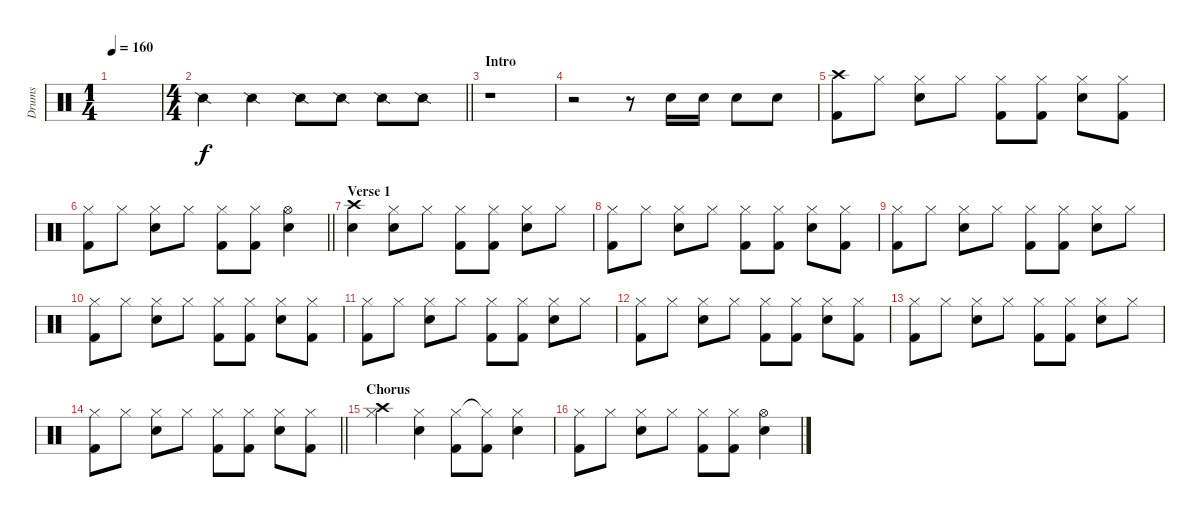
\track ("Drums" "Drums") {instrument percussion}
\staff {score}
\articulation defaults
\ts (1 4)
\tempo 160
\clef neutral
\ks c
|
\ts (4 4)
\barLineRight lightlight "Snare (side stick) 2".4 "Snare (side stick) 2".4 "Snare (side stick) 2".8 "Snare (side stick) 2".8 "Snare (side stick) 2".8 "Snare (side stick) 2".8
|
\section ("" "Intro")
r.1 |
r.2 r.8 "Electric Snare (hit)".16 "Electric Snare (hit)".16 "Electric Snare (hit)".8 "Electric Snare (hit)".8 |
("Crash high (hit)" "Kick (hit) 2").8 "Hi-Hat (closed)".8 ("Hi-Hat (closed)" "Electric Snare (hit)").8 "Hi-Hat (closed)".8 ("Hi-Hat (closed)" "Kick (hit) 2").8 ("Hi-Hat (closed)" "Kick (hit) 2").8 ("Hi-Hat (closed)" "Electric Snare (hit)").8 ("Hi-Hat (closed)" "Kick (hit) 2").8 |
\barLineRight lightlight
("Hi-Hat (closed)" "Kick (hit) 2").8 "Hi-Hat (closed)".8 ("Hi-Hat (closed)" "Electric Snare (hit)").8 "Hi-Hat (closed)".8 ("Hi-Hat (closed)" "Kick (hit) 2").8 ("Hi-Hat (closed)" "Kick (hit) 2").8 ("Hi-Hat (open)" "Electric Snare (hit)").4 |
\section ("" "Verse 1")
("Crash high (hit)" "Electric Snare (hit)").4 ("Hi-Hat (closed)" "Electric Snare (hit)").8 "Hi-Hat (closed)".8 ("Hi-Hat (closed)" "Kick (hit) 2").8 ("Hi-Hat (closed)" "Kick (hit) 2").8 ("Hi-Hat (closed)" "Electric Snare (hit)").8 "Hi-Hat (closed)".8 |
("Hi-Hat (closed)" "Kick (hit) 2").8 "Hi-Hat (closed)".8 ("Hi-Hat (closed)" "Electric Snare (hit)").8 "Hi-Hat (closed)".8 ("Hi-Hat (closed)" "Kick (hit) 2").8 ("Hi-Hat (closed)" "Kick (hit) 2").8 ("Hi-Hat (closed)" "Electric Snare (hit)").8 ("Hi-Hat (closed)" "Kick (hit) 2").8 |
("Hi-Hat (closed)" "Kick (hit) 2").8 "Hi-Hat (closed)".8 ("Hi-Hat (closed)" "Electric Snare (hit)").8 "Hi-Hat (closed)".8 ("Hi-Hat (closed)" "Kick (hit) 2").8 ("Hi-Hat (closed)" "Kick (hit) 2").8 ("Hi-Hat (closed)" "Electric Snare (hit)").8 "Hi-Hat (closed)".8 |
("Hi-Hat (closed)" "Kick (hit) 2").8 "Hi-Hat (closed)".8 ("Hi-Hat (closed)" "Electric Snare (hit)").8 "Hi-Hat (closed)".8 ("Hi-Hat (closed)" "Kick (hit) 2").8 ("Hi-Hat (closed)" "Kick (hit) 2").8 ("Hi-Hat (closed)" "Electric Snare (hit)").8 ("Hi-Hat (closed)" "Kick (hit) 2").8 |
("Hi-Hat (closed)" "Kick (hit) 2").8 "Hi-Hat (closed)".8 ("Hi-Hat (closed)" "Electric Snare (hit)").8 "Hi-Hat (closed)".8 ("Hi-Hat (closed)" "Kick (hit) 2").8 ("Hi-Hat (closed)" "Kick (hit) 2").8 ("Hi-Hat (closed)" "Electric Snare (hit)").8 "Hi-Hat (closed)".8 |
("Hi-Hat (closed)" "Kick (hit) 2").8 "Hi-Hat (closed)".8 ("Hi-Hat (closed)" "Electric Snare (hit)").8 "Hi-Hat (closed)".8 ("Hi-Hat (closed)" "Kick (hit) 2").8 ("Hi-Hat (closed)" "Kick (hit) 2").8 ("Hi-Hat (closed)" "Electric Snare (hit)").8 ("Hi-Hat (closed)" "Kick (hit) 2").8 |
("Hi-Hat (closed)" "Kick (hit) 2").8 "Hi-Hat (closed)".8 ("Hi-Hat (closed)" "Electric Snare (hit)").8 "Hi-Hat (closed)".8 ("Hi-Hat (closed)" "Kick (hit) 2").8 ("Hi-Hat (closed)" "Kick (hit) 2").8 ("Hi-Hat (closed)" "Electric Snare (hit)").8 "Hi-Hat (closed)".8 |
\barLineRight lightlight
("Hi-Hat (closed)" "Kick (hit) 2").8 "Hi-Hat (closed)".8 ("Hi-Hat (closed)" "Electric Snare (hit)").8 "Hi-Hat (closed)".8 ("Hi-Hat (closed)" "Kick (hit) 2").8 ("Hi-Hat (closed)" "Kick (hit) 2").8 ("Hi-Hat (closed)" "Electric Snare (hit)").8 ("Hi-Hat (closed)" "Kick (hit) 2").8 |
\section ("" "Chorus")
("Crash high (hit)" "Hi-Hat (closed)").4 ("Hi-Hat (closed)" "Electric Snare (hit)").4 ("Hi-Hat (closed)" "Kick (hit) 2").8 ("Hi-Hat (closed)"{t} "Kick (hit) 2").8 ("Hi-Hat (closed)" "Electric Snare (hit)").4 |
("Hi-Hat (closed)" "Kick (hit) 2").8 "Hi-Hat (closed)".8 ("Hi-Hat (closed)" "Electric Snare (hit)").8 "Hi-Hat (closed)".8 ("Hi-Hat (closed)" "Kick (hit) 2").8 ("Hi-Hat (closed)" "Kick (hit) 2").8 ("Hi-Hat (open)" "Electric Snare (hit)").4
